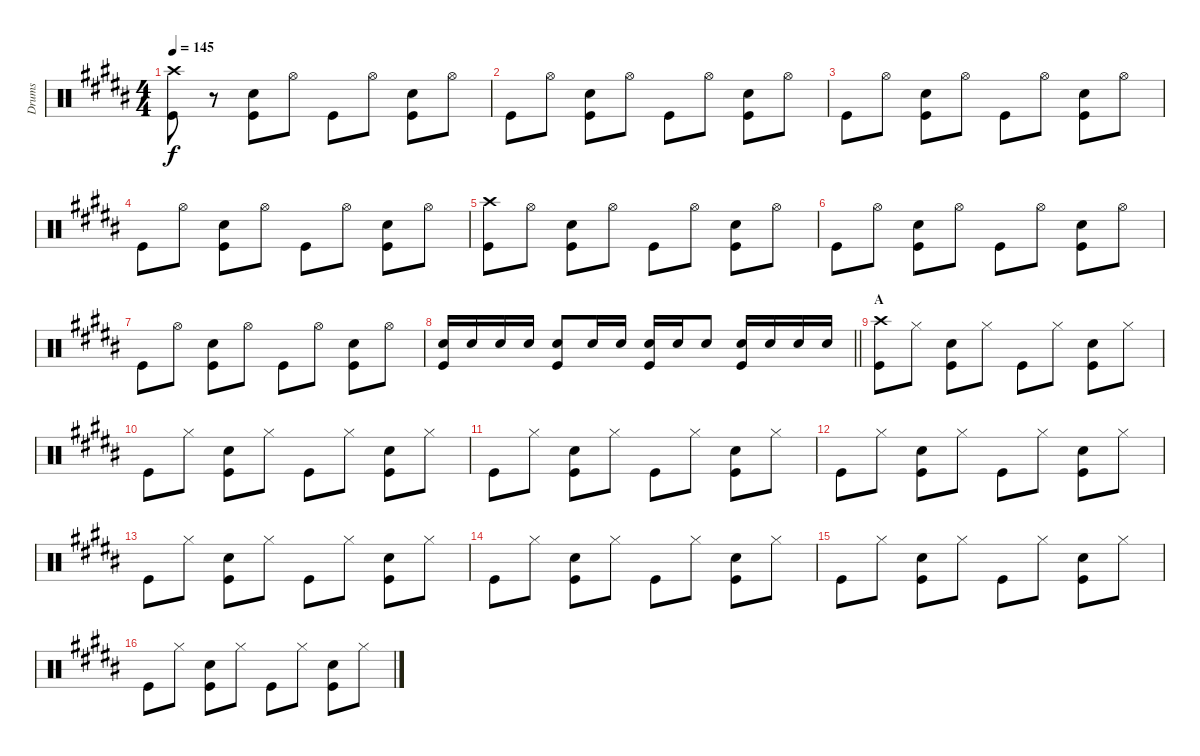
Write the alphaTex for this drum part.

\track ("Drums" "Drums") {instrument percussion}
\staff {score}
\articulation defaults
\ts (4 4)
\tempo 145
\clef neutral
\ks b
("Crash high (hit)" "Kick (hit)").8{dy f} r.8 ("Snare (hit) 2" "Kick (hit)").8 "Hi-Hat (open)".8 "Kick (hit)".8 "Hi-Hat (open)".8 ("Snare (hit) 2" "Kick (hit)").8 "Hi-Hat (open)".8 |
"Kick (hit)".8 "Hi-Hat (open)".8 ("Snare (hit) 2" "Kick (hit)").8 "Hi-Hat (open)".8 "Kick (hit)".8 "Hi-Hat (open)".8 ("Snare (hit) 2" "Kick (hit)").8 "Hi-Hat (open)".8 |
"Kick (hit)".8 "Hi-Hat (open)".8 ("Snare (hit) 2" "Kick (hit)").8 "Hi-Hat (open)".8 "Kick (hit)".8 "Hi-Hat (open)".8 ("Snare (hit) 2" "Kick (hit)").8 "Hi-Hat (open)".8 |
"Kick (hit)".8 "Hi-Hat (open)".8 ("Snare (hit) 2" "Kick (hit)").8 "Hi-Hat (open)".8 "Kick (hit)".8 "Hi-Hat (open)".8 ("Snare (hit) 2" "Kick (hit)").8 "Hi-Hat (open)".8 |
("Crash high (hit)" "Kick (hit)").8 "Hi-Hat (open)".8 ("Snare (hit) 2" "Kick (hit)").8 "Hi-Hat (open)".8 "Kick (hit)".8 "Hi-Hat (open)".8 ("Snare (hit) 2" "Kick (hit)").8 "Hi-Hat (open)".8 |
"Kick (hit)".8 "Hi-Hat (open)".8 ("Snare (hit) 2" "Kick (hit)").8 "Hi-Hat (open)".8 "Kick (hit)".8 "Hi-Hat (open)".8 ("Snare (hit) 2" "Kick (hit)").8 "Hi-Hat (open)".8 |
"Kick (hit)".8 "Hi-Hat (open)".8 ("Snare (hit) 2" "Kick (hit)").8 "Hi-Hat (open)".8 "Kick (hit)".8 "Hi-Hat (open)".8 ("Snare (hit) 2" "Kick (hit)").8 "Hi-Hat (open)".8 |
\barLineRight lightlight
("Snare (hit) 2" "Kick (hit)").16 "Snare (hit) 2".16 "Snare (hit) 2".16 "Snare (hit) 2".16 ("Snare (hit) 2" "Kick (hit)").8 "Snare (hit) 2".16 "Snare (hit) 2".16 ("Snare (hit) 2" "Kick (hit)").16 "Snare (hit) 2".16 "Snare (hit) 2".8 ("Snare (hit) 2" "Kick (hit)").16 "Snare (hit) 2".16 "Snare (hit) 2".16 "Snare (hit) 2".16 |
\section ("" "A")
("Crash high (hit)" "Kick (hit)").8 "Hi-Hat (closed)".8 ("Snare (hit) 2" "Kick (hit)").8 "Hi-Hat (closed)".8 "Kick (hit)".8 "Hi-Hat (closed)".8 ("Snare (hit) 2" "Kick (hit)").8 "Hi-Hat (closed)".8 |
"Kick (hit)".8 "Hi-Hat (closed)".8 ("Snare (hit) 2" "Kick (hit)").8 "Hi-Hat (closed)".8 "Kick (hit)".8 "Hi-Hat (closed)".8 ("Snare (hit) 2" "Kick (hit)").8 "Hi-Hat (closed)".8 |
"Kick (hit)".8 "Hi-Hat (closed)".8 ("Snare (hit) 2" "Kick (hit)").8 "Hi-Hat (closed)".8 "Kick (hit)".8 "Hi-Hat (closed)".8 ("Snare (hit) 2" "Kick (hit)").8 "Hi-Hat (closed)".8 |
"Kick (hit)".8 "Hi-Hat (closed)".8 ("Snare (hit) 2" "Kick (hit)").8 "Hi-Hat (closed)".8 "Kick (hit)".8 "Hi-Hat (closed)".8 ("Snare (hit) 2" "Kick (hit)").8 "Hi-Hat (closed)".8 |
"Kick (hit)".8 "Hi-Hat (closed)".8 ("Snare (hit) 2" "Kick (hit)").8 "Hi-Hat (closed)".8 "Kick (hit)".8 "Hi-Hat (closed)".8 ("Snare (hit) 2" "Kick (hit)").8 "Hi-Hat (closed)".8 |
"Kick (hit)".8 "Hi-Hat (closed)".8 ("Snare (hit) 2" "Kick (hit)").8 "Hi-Hat (closed)".8 "Kick (hit)".8 "Hi-Hat (closed)".8 ("Snare (hit) 2" "Kick (hit)").8 "Hi-Hat (closed)".8 |
"Kick (hit)".8 "Hi-Hat (closed)".8 ("Snare (hit) 2" "Kick (hit)").8 "Hi-Hat (closed)".8 "Kick (hit)".8 "Hi-Hat (closed)".8 ("Snare (hit) 2" "Kick (hit)").8 "Hi-Hat (closed)".8 |
"Kick (hit)".8 "Hi-Hat (closed)".8 ("Snare (hit) 2" "Kick (hit)").8 "Hi-Hat (closed)".8 "Kick (hit)".8 "Hi-Hat (closed)".8 ("Snare (hit) 2" "Kick (hit)").8 "Hi-Hat (closed)".8
